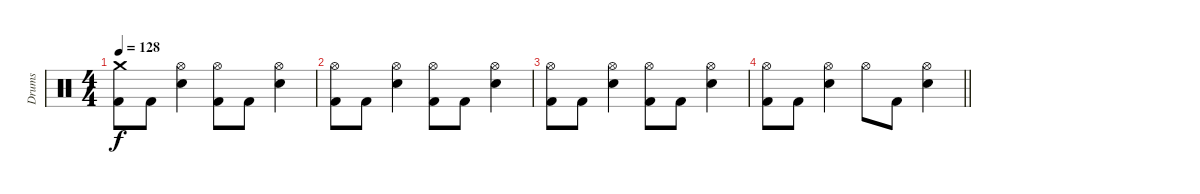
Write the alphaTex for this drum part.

\track ("Drums" "Drums") {instrument percussion}
\staff {score}
\articulation defaults
\ts (4 4)
\tempo 128
\clef neutral
\ks c
("Crash medium (hit)" "Kick (hit) 2").8{dy f} "Kick (hit) 2".8 ("Hi-Hat (open)" "Electric Snare (hit)").4 ("Hi-Hat (open)" "Kick (hit) 2").8 "Kick (hit) 2".8 ("Hi-Hat (open)" "Electric Snare (hit)").4 |
("Hi-Hat (open)" "Kick (hit) 2").8 "Kick (hit) 2".8 ("Hi-Hat (open)" "Electric Snare (hit)").4 ("Hi-Hat (open)" "Kick (hit) 2").8 "Kick (hit) 2".8 ("Hi-Hat (open)" "Electric Snare (hit)").4 |
("Hi-Hat (open)" "Kick (hit) 2").8 "Kick (hit) 2".8 ("Hi-Hat (open)" "Electric Snare (hit)").4 ("Hi-Hat (open)" "Kick (hit) 2").8 "Kick (hit) 2".8 ("Hi-Hat (open)" "Electric Snare (hit)").4 |
\barLineRight lightlight
("Hi-Hat (open)" "Kick (hit) 2").8 "Kick (hit) 2".8 ("Hi-Hat (open)" "Electric Snare (hit)").4 "Hi-Hat (open)".8 "Kick (hit) 2".8 ("Hi-Hat (open)" "Electric Snare (hit)").4
